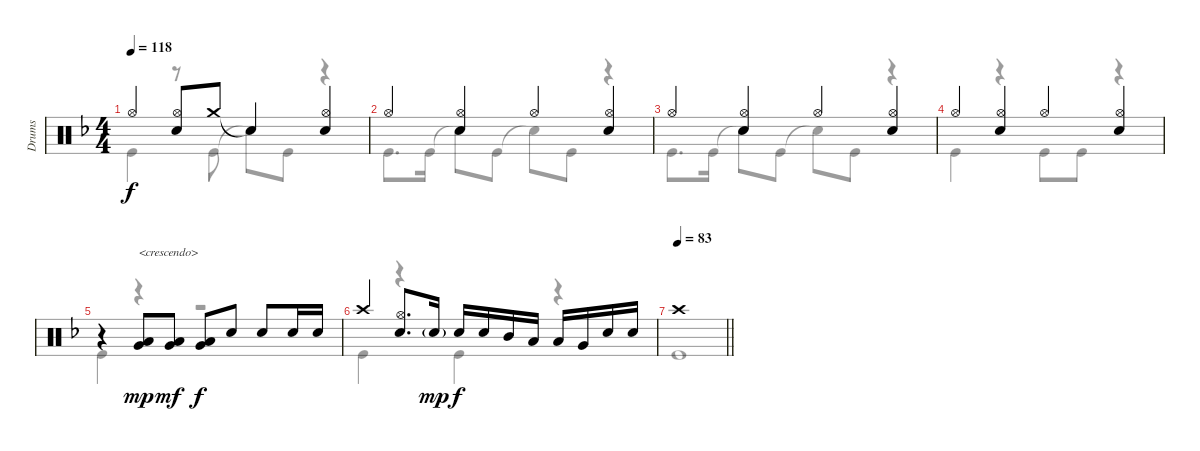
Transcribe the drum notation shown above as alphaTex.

\track ("Drums" "Drums") {instrument percussion}
\staff {score}
\articulation defaults
\voice
\ts (4 4)
\tempo 118
\clef neutral
\ks f "Hi-Hat (open)".4{dy f}
("Hi-Hat (open)" "Snare (hit) 2").8 "Crash medium (hit)".8 "Snare (hit)"{t}.4 ("Hi-Hat (open)" "Snare (hit) 2").4 |
"Hi-Hat (open)".4 ("Hi-Hat (open)" "Snare (hit) 2").4 "Hi-Hat (open)".4 ("Hi-Hat (open)" "Snare (hit) 2").4 |
"Hi-Hat (open)".4 ("Hi-Hat (open)" "Snare (hit) 2").4 "Hi-Hat (open)".4 ("Hi-Hat (open)" "Snare (hit) 2").4 |
"Hi-Hat (open)".4 ("Hi-Hat (open)" "Snare (hit) 2").4 "Hi-Hat (open)".4 ("Hi-Hat (open)" "Snare (hit) 2").4 |
r.4 ("Very Low Tom (hit)" "Low Tom (hit)").8{txt "<crescendo>" dy mp} ("Very Low Tom (hit)" "Low Tom (hit)").8{dy mf} ("Very Low Tom (hit)" "Low Tom (hit)").8{dy f} "Snare (hit) 2".8 "Snare (hit) 2".8 "Snare (hit) 2".16 "Snare (hit) 2".16 |
"Crash high (hit)".4 ("Hi-Hat (open)" "Snare (hit) 2").8{d} "Snare (hit) 2"{g}.16{dy mp} "Snare (hit) 2".16{dy f} "Snare (hit) 2".16 "Mid Tom (hit)".16 "Low Tom (hit)".16 "Low Tom (hit)".16 "Very Low Tom (hit)".16 "Snare (hit) 2".16 "Snare (hit) 2".16 |
\tempo 83
\barLineRight lightlight "Crash high (hit)".1
\voice
\clef neutral
\ottava regular
\simile none
\ks f "Kick (hit)".4{dy f}
r.8 "Kick (hit)".8 "Snare (hit)"{t}.8 "Kick (hit)".8 r.4 |
"Kick (hit)".8{d} "Kick (hit)".16 "Snare (hit)"{t}.8 "Kick (hit)".8 "Snare (hit)"{t}.8 "Kick (hit)".8 r.4 |
"Kick (hit)".8{d} "Kick (hit)".16 "Snare (hit)"{t}.8 "Kick (hit)".8 "Snare (hit)"{t}.8 "Kick (hit)".8 r.4 |
"Kick (hit)".4 r.4 "Kick (hit)".8 "Kick (hit)".8 r.4 |
"Kick (hit)".4 r.4 r.2 |
"Kick (hit)".4 r.4 "Kick (hit)".4 r.4 |
\barLineRight lightlight "Kick (hit)".1
